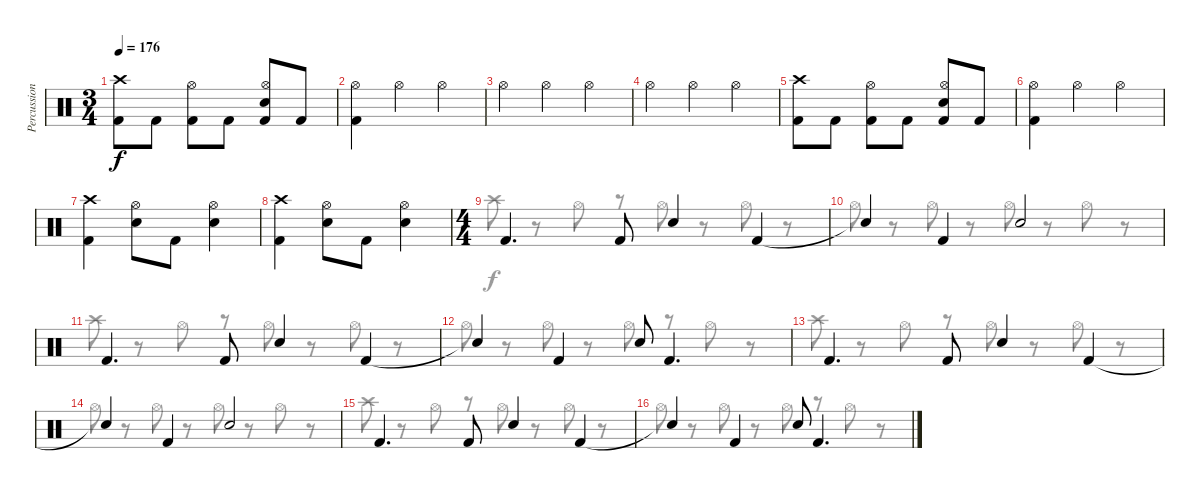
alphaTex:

\track ("Percussion" "Percussion") {instrument percussion}
\staff {score}
\articulation defaults
\voice
\ts (3 4)
\tempo 176
\clef neutral
\ks c
("Crash high (hit)" "Kick (hit) 2").8{dy f} "Kick (hit) 2".8 ("Hi-Hat (open)" "Kick (hit) 2").8 "Kick (hit) 2".8 ("Hi-Hat (open)" "Electric Snare (hit)" "Kick (hit) 2").8 "Kick (hit) 2".8 |
("Hi-Hat (open)" "Kick (hit) 2").4 "Hi-Hat (open)".4 "Hi-Hat (open)".4 |
"Hi-Hat (open)".4 "Hi-Hat (open)".4 "Hi-Hat (open)".4 |
"Hi-Hat (open)".4 "Hi-Hat (open)".4 "Hi-Hat (open)".4 |
("Crash high (hit)" "Kick (hit) 2").8 "Kick (hit) 2".8 ("Hi-Hat (open)" "Kick (hit) 2").8 "Kick (hit) 2".8 ("Hi-Hat (open)" "Electric Snare (hit)" "Kick (hit) 2").8 "Kick (hit) 2".8 |
("Hi-Hat (open)" "Kick (hit) 2").4 "Hi-Hat (open)".4 "Hi-Hat (open)".4 |
("Crash high (hit)" "Kick (hit) 2").4 ("Hi-Hat (open)" "Electric Snare (hit)").8 "Kick (hit) 2".8 ("Hi-Hat (open)" "Electric Snare (hit)").4 |
("Crash high (hit)" "Kick (hit) 2").4 ("Hi-Hat (open)" "Electric Snare (hit)").8 "Kick (hit) 2".8 ("Hi-Hat (open)" "Electric Snare (hit)").4 |
\ts (4 4)
"Kick (hit) 2".4{d} "Kick (hit) 2".8 "Electric Snare (hit)".4 "Kick (hit) 2".4 |
"Snare (hit)"{t}.4 "Kick (hit) 2".4 "Electric Snare (hit)".2 |
"Kick (hit) 2".4{d} "Kick (hit) 2".8 "Electric Snare (hit)".4 "Kick (hit) 2".4 |
"Snare (hit)"{t}.4 "Kick (hit) 2".4 "Electric Snare (hit)".8 "Kick (hit) 2".4{d} |
"Kick (hit) 2".4{d} "Kick (hit) 2".8 "Electric Snare (hit)".4 "Kick (hit) 2".4 |
"Snare (hit)"{t}.4 "Kick (hit) 2".4 "Electric Snare (hit)".2 |
"Kick (hit) 2".4{d} "Kick (hit) 2".8 "Electric Snare (hit)".4 "Kick (hit) 2".4 |
"Snare (hit)"{t}.4 "Kick (hit) 2".4 "Electric Snare (hit)".8 "Kick (hit) 2".4{d}
\voice
\clef neutral
\ottava regular
\simile none
\ks c
|
|
|
|
|
|
|
|
"Crash high (hit)".8 r.8 "Hi-Hat (open)".8 r.8 "Hi-Hat (open)".8 r.8 "Hi-Hat (open)".8 r.8 |
"Hi-Hat (open)".8 r.8 "Hi-Hat (open)".8 r.8 "Hi-Hat (open)".8 r.8 "Hi-Hat (open)".8 r.8 |
"Crash high (hit)".8 r.8 "Hi-Hat (open)".8 r.8 "Hi-Hat (open)".8 r.8 "Hi-Hat (open)".8 r.8 |
"Hi-Hat (open)".8 r.8 "Hi-Hat (open)".8 r.8 "Hi-Hat (open)".8 r.8 "Hi-Hat (open)".8 r.8 |
"Crash high (hit)".8 r.8 "Hi-Hat (open)".8 r.8 "Hi-Hat (open)".8 r.8 "Hi-Hat (open)".8 r.8 |
"Hi-Hat (open)".8 r.8 "Hi-Hat (open)".8 r.8 "Hi-Hat (open)".8 r.8 "Hi-Hat (open)".8 r.8 |
"Crash high (hit)".8 r.8 "Hi-Hat (open)".8 r.8 "Hi-Hat (open)".8 r.8 "Hi-Hat (open)".8 r.8 |
"Hi-Hat (open)".8 r.8 "Hi-Hat (open)".8 r.8 "Hi-Hat (open)".8 r.8 "Hi-Hat (open)".8 r.8
